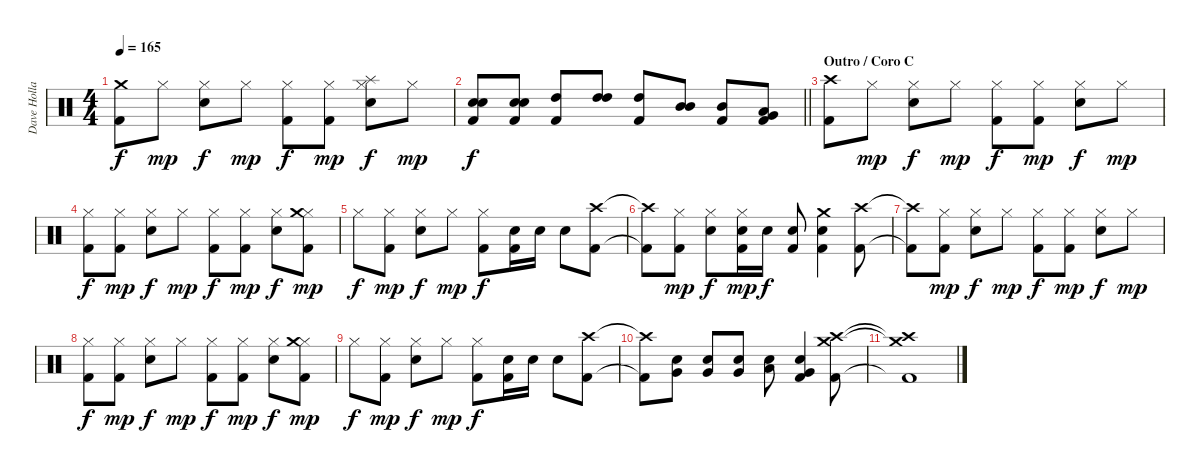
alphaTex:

\track ("Dave Holland" "Dave Holla") {instrument percussion}
\staff {score}
\articulation defaults
\ts (4 4)
\tempo 165
\clef neutral
\ks c
("Crash medium (hit)" "Kick (hit) 2").8{dy f} "Hi-Hat (closed)".8{dy mp} ("Hi-Hat (closed)" "Snare (hit) 2").8{dy f} "Hi-Hat (closed)".8{dy mp} ("Hi-Hat (closed)" "Kick (hit) 2").8{dy f} ("Hi-Hat (closed)" "Kick (hit) 2").8{dy mp} ("Hi-Hat (closed)" "Snare (hit) 2" "Splash (hit)").8{dy f} "Hi-Hat (closed)".8{dy mp} |
\barLineRight lightlight
("Snare (hit) 2" "Snare (hit) 2" "Kick (hit) 2").8{dy f} ("Snare (hit) 2" "Snare (hit) 2" "Kick (hit) 2").8 ("High Tom (hit)" "Kick (hit) 2").8 ("High Tom (hit)" "High Tom (hit)").8 ("High Tom (hit)" "Kick (hit) 2").8 ("Mid Tom (hit)" "Mid Tom (hit)").8 ("Mid Tom (hit)" "Kick (hit) 2").8 ("Low Tom (hit)" "Very Low Tom (hit)" "Kick (hit) 2").8 |
\section ("" "Outro / Coro C")
("Crash high (hit)" "Kick (hit) 2").8 "Hi-Hat (closed)".8{dy mp} ("Hi-Hat (closed)" "Snare (hit) 2").8{dy f} "Hi-Hat (closed)".8{dy mp} ("Hi-Hat (closed)" "Kick (hit) 2").8{dy f} ("Hi-Hat (closed)" "Kick (hit) 2").8{dy mp} ("Hi-Hat (closed)" "Snare (hit) 2").8{dy f} "Hi-Hat (closed)".8{dy mp} |
("Hi-Hat (closed)" "Kick (hit) 2").8{dy f} ("Hi-Hat (closed)" "Kick (hit) 2").8{dy mp} ("Hi-Hat (closed)" "Snare (hit) 2").8{dy f} "Hi-Hat (closed)".8{dy mp} ("Hi-Hat (closed)" "Kick (hit) 2").8{dy f} ("Hi-Hat (closed)" "Kick (hit) 2").8{dy mp} ("Hi-Hat (closed)" "Snare (hit) 2").8{dy f} ("Hi-Hat (closed)" "Crash medium (hit)" "Kick (hit) 2").8{dy mp} |
"Hi-Hat (closed)".8{dy f} ("Hi-Hat (closed)" "Kick (hit) 2").8{dy mp} ("Hi-Hat (closed)" "Snare (hit) 2").8{dy f} "Hi-Hat (closed)".8{dy mp} ("Hi-Hat (closed)" "Kick (hit) 2").8{dy f} ("Snare (hit) 2" "Kick (hit) 2").16 "Snare (hit) 2".16 "Snare (hit) 2".8 ("Crash high (hit)" "Kick (hit) 2").8 |
("Crash high (hit)"{t} "Kick (hit) 2"{t}).8 ("Hi-Hat (closed)" "Kick (hit) 2").8{dy mp} ("Hi-Hat (closed)" "Snare (hit) 2").8{dy f} ("Hi-Hat (closed)" "Snare (hit) 2" "Kick (hit) 2").16{dy mp} "Snare (hit) 2".16{dy f} ("Snare (hit) 2" "Kick (hit) 2").8 ("Snare (hit) 2" "Crash medium (hit)" "Kick (hit) 2").4 ("Crash high (hit)" "Kick (hit) 2").8 |
("Crash high (hit)"{t} "Kick (hit) 2"{t}).8 ("Hi-Hat (closed)" "Kick (hit) 2").8{dy mp} ("Hi-Hat (closed)" "Snare (hit) 2").8{dy f} "Hi-Hat (closed)".8{dy mp} ("Hi-Hat (closed)" "Kick (hit) 2").8{dy f} ("Hi-Hat (closed)" "Kick (hit) 2").8{dy mp} ("Hi-Hat (closed)" "Snare (hit) 2").8{dy f} "Hi-Hat (closed)".8{dy mp} |
("Hi-Hat (closed)" "Kick (hit) 2").8{dy f} ("Hi-Hat (closed)" "Kick (hit) 2").8{dy mp} ("Hi-Hat (closed)" "Snare (hit) 2").8{dy f} "Hi-Hat (closed)".8{dy mp} ("Hi-Hat (closed)" "Kick (hit) 2").8{dy f} ("Hi-Hat (closed)" "Kick (hit) 2").8{dy mp} ("Hi-Hat (closed)" "Snare (hit) 2").8{dy f} ("Hi-Hat (closed)" "Crash medium (hit)" "Kick (hit) 2").8{dy mp} |
"Hi-Hat (closed)".8{dy f} ("Hi-Hat (closed)" "Kick (hit) 2").8{dy mp} ("Hi-Hat (closed)" "Snare (hit) 2").8{dy f} "Hi-Hat (closed)".8{dy mp} ("Hi-Hat (closed)" "Kick (hit) 2").8{dy f} ("Snare (hit) 2" "Kick (hit) 2").16 "Snare (hit) 2".16 "Snare (hit) 2".8 ("Crash high (hit)" "Kick (hit) 2").8 |
("Crash high (hit)"{t} "Kick (hit) 2"{t}).8 ("Snare (hit) 2" "Very Low Tom (hit)").8 ("Snare (hit) 2" "Very Low Tom (hit)").8 ("Snare (hit) 2" "Very Low Tom (hit)").8 ("Snare (hit) 2" "Low Tom (hit)").8 ("Snare (hit) 2" "Very Low Tom (hit)" "Kick (hit) 2").4 ("Crash medium (hit)" "Crash high (hit)" "Kick (hit) 2").8 |
("Crash medium (hit)"{t} "Crash high (hit)"{t} "Kick (hit) 2"{t}).1
